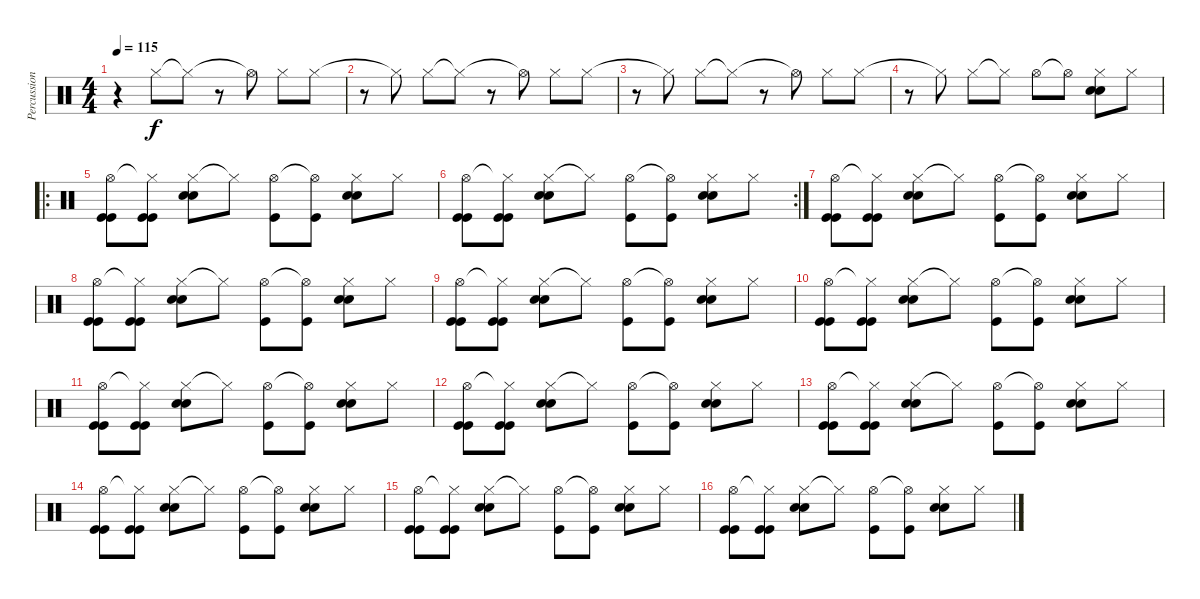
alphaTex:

\track ("Percussions" "Percussion") {instrument percussion}
\staff {score}
\articulation defaults
\ts (4 4)
\tempo 115
\clef neutral
\ks c
r.4{dy f} "Hi-Hat (closed)".8 "Hi-Hat (closed)"{t}.8 r.8 "Hi-Hat (open)"{t}.8 "Hi-Hat (closed)".8 "Hi-Hat (closed)".8 |
r.8 "Hi-Hat (closed)"{t}.8 "Hi-Hat (closed)".8 "Hi-Hat (closed)"{t}.8 r.8 "Hi-Hat (open)"{t}.8 "Hi-Hat (closed)".8 "Hi-Hat (closed)".8 |
r.8 "Hi-Hat (closed)"{t}.8 "Hi-Hat (closed)".8 "Hi-Hat (closed)"{t}.8 r.8 "Hi-Hat (open)"{t}.8 "Hi-Hat (closed)".8 "Hi-Hat (closed)".8 |
r.8 "Hi-Hat (closed)"{t}.8 "Hi-Hat (closed)".8 "Hi-Hat (closed)"{t}.8 "Hi-Hat (open)".8 "Hi-Hat (open)"{t}.8 ("Hi-Hat (closed)" "Snare (hit) 2" "Snare (hit) 2").8 "Hi-Hat (closed)".8 |
\ro
("Hi-Hat (open)" "Kick (hit)" "Kick (hit)").8 ("Hi-Hat (closed)"{t} "Kick (hit)" "Kick (hit)").8 ("Hi-Hat (closed)" "Snare (hit) 2" "Snare (hit) 2").8 "Hi-Hat (closed)"{t}.8 ("Hi-Hat (open)" "Kick (hit)").8 ("Hi-Hat (open)"{t} "Kick (hit)").8 ("Hi-Hat (closed)" "Snare (hit) 2" "Snare (hit) 2").8 "Hi-Hat (closed)".8 |
\rc 2
("Hi-Hat (open)" "Kick (hit)" "Kick (hit)").8 ("Hi-Hat (closed)"{t} "Kick (hit)" "Kick (hit)").8 ("Hi-Hat (closed)" "Snare (hit) 2" "Snare (hit) 2").8 "Hi-Hat (closed)"{t}.8 ("Hi-Hat (open)" "Kick (hit)").8 ("Hi-Hat (open)"{t} "Kick (hit)").8 ("Hi-Hat (closed)" "Snare (hit) 2" "Snare (hit) 2").8 "Hi-Hat (closed)".8 |
("Hi-Hat (open)" "Kick (hit)" "Kick (hit)").8 ("Hi-Hat (closed)"{t} "Kick (hit)" "Kick (hit)").8 ("Hi-Hat (closed)" "Snare (hit) 2" "Snare (hit) 2").8 "Hi-Hat (closed)"{t}.8 ("Hi-Hat (open)" "Kick (hit)").8 ("Hi-Hat (open)"{t} "Kick (hit)").8 ("Hi-Hat (closed)" "Snare (hit) 2" "Snare (hit) 2").8 "Hi-Hat (closed)".8 |
("Hi-Hat (open)" "Kick (hit)" "Kick (hit)").8 ("Hi-Hat (closed)"{t} "Kick (hit)" "Kick (hit)").8 ("Hi-Hat (closed)" "Snare (hit) 2" "Snare (hit) 2").8 "Hi-Hat (closed)"{t}.8 ("Hi-Hat (open)" "Kick (hit)").8 ("Hi-Hat (open)"{t} "Kick (hit)").8 ("Hi-Hat (closed)" "Snare (hit) 2" "Snare (hit) 2").8 "Hi-Hat (closed)".8 |
("Hi-Hat (open)" "Kick (hit)" "Kick (hit)").8 ("Hi-Hat (closed)"{t} "Kick (hit)" "Kick (hit)").8 ("Hi-Hat (closed)" "Snare (hit) 2" "Snare (hit) 2").8 "Hi-Hat (closed)"{t}.8 ("Hi-Hat (open)" "Kick (hit)").8 ("Hi-Hat (open)"{t} "Kick (hit)").8 ("Hi-Hat (closed)" "Snare (hit) 2" "Snare (hit) 2").8 "Hi-Hat (closed)".8 |
("Hi-Hat (open)" "Kick (hit)" "Kick (hit)").8 ("Hi-Hat (closed)"{t} "Kick (hit)" "Kick (hit)").8 ("Hi-Hat (closed)" "Snare (hit) 2" "Snare (hit) 2").8 "Hi-Hat (closed)"{t}.8 ("Hi-Hat (open)" "Kick (hit)").8 ("Hi-Hat (open)"{t} "Kick (hit)").8 ("Hi-Hat (closed)" "Snare (hit) 2" "Snare (hit) 2").8 "Hi-Hat (closed)".8 |
("Hi-Hat (open)" "Kick (hit)" "Kick (hit)").8 ("Hi-Hat (closed)"{t} "Kick (hit)" "Kick (hit)").8 ("Hi-Hat (closed)" "Snare (hit) 2" "Snare (hit) 2").8 "Hi-Hat (closed)"{t}.8 ("Hi-Hat (open)" "Kick (hit)").8 ("Hi-Hat (open)"{t} "Kick (hit)").8 ("Hi-Hat (closed)" "Snare (hit) 2" "Snare (hit) 2").8 "Hi-Hat (closed)".8 |
("Hi-Hat (open)" "Kick (hit)" "Kick (hit)").8 ("Hi-Hat (closed)"{t} "Kick (hit)" "Kick (hit)").8 ("Hi-Hat (closed)" "Snare (hit) 2" "Snare (hit) 2").8 "Hi-Hat (closed)"{t}.8 ("Hi-Hat (open)" "Kick (hit)").8 ("Hi-Hat (open)"{t} "Kick (hit)").8 ("Hi-Hat (closed)" "Snare (hit) 2" "Snare (hit) 2").8 "Hi-Hat (closed)".8 |
("Hi-Hat (open)" "Kick (hit)" "Kick (hit)").8 ("Hi-Hat (closed)"{t} "Kick (hit)" "Kick (hit)").8 ("Hi-Hat (closed)" "Snare (hit) 2" "Snare (hit) 2").8 "Hi-Hat (closed)"{t}.8 ("Hi-Hat (open)" "Kick (hit)").8 ("Hi-Hat (open)"{t} "Kick (hit)").8 ("Hi-Hat (closed)" "Snare (hit) 2" "Snare (hit) 2").8 "Hi-Hat (closed)".8 |
("Hi-Hat (open)" "Kick (hit)" "Kick (hit)").8 ("Hi-Hat (closed)"{t} "Kick (hit)" "Kick (hit)").8 ("Hi-Hat (closed)" "Snare (hit) 2" "Snare (hit) 2").8 "Hi-Hat (closed)"{t}.8 ("Hi-Hat (open)" "Kick (hit)").8 ("Hi-Hat (open)"{t} "Kick (hit)").8 ("Hi-Hat (closed)" "Snare (hit) 2" "Snare (hit) 2").8 "Hi-Hat (closed)".8 |
("Hi-Hat (open)" "Kick (hit)" "Kick (hit)").8 ("Hi-Hat (closed)"{t} "Kick (hit)" "Kick (hit)").8 ("Hi-Hat (closed)" "Snare (hit) 2" "Snare (hit) 2").8 "Hi-Hat (closed)"{t}.8 ("Hi-Hat (open)" "Kick (hit)").8 ("Hi-Hat (open)"{t} "Kick (hit)").8 ("Hi-Hat (closed)" "Snare (hit) 2" "Snare (hit) 2").8 "Hi-Hat (closed)".8 |
("Hi-Hat (open)" "Kick (hit)" "Kick (hit)").8 ("Hi-Hat (closed)"{t} "Kick (hit)" "Kick (hit)").8 ("Hi-Hat (closed)" "Snare (hit) 2" "Snare (hit) 2").8 "Hi-Hat (closed)"{t}.8 ("Hi-Hat (open)" "Kick (hit)").8 ("Hi-Hat (open)"{t} "Kick (hit)").8 ("Hi-Hat (closed)" "Snare (hit) 2" "Snare (hit) 2").8 "Hi-Hat (closed)".8
